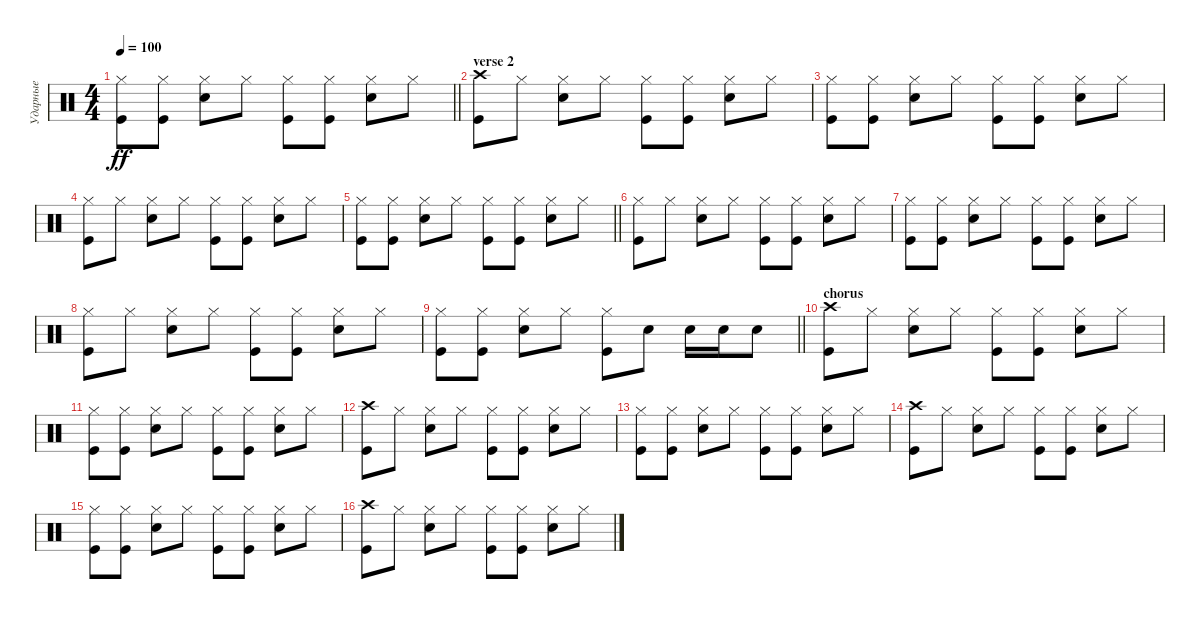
\track ("Ударные" "Ударные") {instrument percussion}
\staff {score}
\articulation defaults
\ts (4 4)
\tempo 100
\clef neutral
\barLineRight lightlight
\ks c
("Hi-Hat (closed)" "Kick (hit)").8{dy ff} ("Hi-Hat (closed)" "Kick (hit)").8 ("Hi-Hat (closed)" "Electric Snare (hit)").8 "Hi-Hat (closed)".8 ("Hi-Hat (closed)" "Kick (hit)").8 ("Hi-Hat (closed)" "Kick (hit)").8 ("Hi-Hat (closed)" "Electric Snare (hit)").8 "Hi-Hat (closed)".8 |
\section ("" "verse 2")
("Crash high (hit)" "Kick (hit)").8 "Hi-Hat (closed)".8 ("Hi-Hat (closed)" "Electric Snare (hit)").8 "Hi-Hat (closed)".8 ("Hi-Hat (closed)" "Kick (hit)").8 ("Hi-Hat (closed)" "Kick (hit)").8 ("Hi-Hat (closed)" "Electric Snare (hit)").8 "Hi-Hat (closed)".8 |
("Hi-Hat (closed)" "Kick (hit)").8 ("Hi-Hat (closed)" "Kick (hit)").8 ("Hi-Hat (closed)" "Electric Snare (hit)").8 "Hi-Hat (closed)".8 ("Hi-Hat (closed)" "Kick (hit)").8 ("Hi-Hat (closed)" "Kick (hit)").8 ("Hi-Hat (closed)" "Electric Snare (hit)").8 "Hi-Hat (closed)".8 |
("Hi-Hat (closed)" "Kick (hit)").8 "Hi-Hat (closed)".8 ("Hi-Hat (closed)" "Electric Snare (hit)").8 "Hi-Hat (closed)".8 ("Hi-Hat (closed)" "Kick (hit)").8 ("Hi-Hat (closed)" "Kick (hit)").8 ("Hi-Hat (closed)" "Electric Snare (hit)").8 "Hi-Hat (closed)".8 |
\barLineRight lightlight
("Hi-Hat (closed)" "Kick (hit)").8 ("Hi-Hat (closed)" "Kick (hit)").8 ("Hi-Hat (closed)" "Electric Snare (hit)").8 "Hi-Hat (closed)".8 ("Hi-Hat (closed)" "Kick (hit)").8 ("Hi-Hat (closed)" "Kick (hit)").8 ("Hi-Hat (closed)" "Electric Snare (hit)").8 "Hi-Hat (closed)".8 |
("Hi-Hat (closed)" "Kick (hit)").8 "Hi-Hat (closed)".8 ("Hi-Hat (closed)" "Electric Snare (hit)").8 "Hi-Hat (closed)".8 ("Hi-Hat (closed)" "Kick (hit)").8 ("Hi-Hat (closed)" "Kick (hit)").8 ("Hi-Hat (closed)" "Electric Snare (hit)").8 "Hi-Hat (closed)".8 |
("Hi-Hat (closed)" "Kick (hit)").8 ("Hi-Hat (closed)" "Kick (hit)").8 ("Hi-Hat (closed)" "Electric Snare (hit)").8 "Hi-Hat (closed)".8 ("Hi-Hat (closed)" "Kick (hit)").8 ("Hi-Hat (closed)" "Kick (hit)").8 ("Hi-Hat (closed)" "Electric Snare (hit)").8 "Hi-Hat (closed)".8 |
("Hi-Hat (closed)" "Kick (hit)").8 "Hi-Hat (closed)".8 ("Hi-Hat (closed)" "Electric Snare (hit)").8 "Hi-Hat (closed)".8 ("Hi-Hat (closed)" "Kick (hit)").8 ("Hi-Hat (closed)" "Kick (hit)").8 ("Hi-Hat (closed)" "Electric Snare (hit)").8 "Hi-Hat (closed)".8 |
\barLineRight lightlight
("Hi-Hat (closed)" "Kick (hit)").8 ("Hi-Hat (closed)" "Kick (hit)").8 ("Hi-Hat (closed)" "Electric Snare (hit)").8 "Hi-Hat (closed)".8 ("Hi-Hat (closed)" "Kick (hit)").8 "Electric Snare (hit)".8 "Electric Snare (hit)".16 "Electric Snare (hit)".16 "Electric Snare (hit)".8 |
\section ("" "chorus")
("Crash high (hit)" "Kick (hit)").8 "Hi-Hat (closed)".8 ("Hi-Hat (closed)" "Electric Snare (hit)").8 "Hi-Hat (closed)".8 ("Hi-Hat (closed)" "Kick (hit)").8 ("Hi-Hat (closed)" "Kick (hit)").8 ("Hi-Hat (closed)" "Electric Snare (hit)").8 "Hi-Hat (closed)".8 |
("Hi-Hat (closed)" "Kick (hit)").8 ("Hi-Hat (closed)" "Kick (hit)").8 ("Hi-Hat (closed)" "Electric Snare (hit)").8 "Hi-Hat (closed)".8 ("Hi-Hat (closed)" "Kick (hit)").8 ("Hi-Hat (closed)" "Kick (hit)").8 ("Hi-Hat (closed)" "Electric Snare (hit)").8 "Hi-Hat (closed)".8 |
("Crash high (hit)" "Kick (hit)").8 "Hi-Hat (closed)".8 ("Hi-Hat (closed)" "Electric Snare (hit)").8 "Hi-Hat (closed)".8 ("Hi-Hat (closed)" "Kick (hit)").8 ("Hi-Hat (closed)" "Kick (hit)").8 ("Hi-Hat (closed)" "Electric Snare (hit)").8 "Hi-Hat (closed)".8 |
("Hi-Hat (closed)" "Kick (hit)").8 ("Hi-Hat (closed)" "Kick (hit)").8 ("Hi-Hat (closed)" "Electric Snare (hit)").8 "Hi-Hat (closed)".8 ("Hi-Hat (closed)" "Kick (hit)").8 ("Hi-Hat (closed)" "Kick (hit)").8 ("Hi-Hat (closed)" "Electric Snare (hit)").8 "Hi-Hat (closed)".8 |
("Crash high (hit)" "Kick (hit)").8 "Hi-Hat (closed)".8 ("Hi-Hat (closed)" "Electric Snare (hit)").8 "Hi-Hat (closed)".8 ("Hi-Hat (closed)" "Kick (hit)").8 ("Hi-Hat (closed)" "Kick (hit)").8 ("Hi-Hat (closed)" "Electric Snare (hit)").8 "Hi-Hat (closed)".8 |
("Hi-Hat (closed)" "Kick (hit)").8 ("Hi-Hat (closed)" "Kick (hit)").8 ("Hi-Hat (closed)" "Electric Snare (hit)").8 "Hi-Hat (closed)".8 ("Hi-Hat (closed)" "Kick (hit)").8 ("Hi-Hat (closed)" "Kick (hit)").8 ("Hi-Hat (closed)" "Electric Snare (hit)").8 "Hi-Hat (closed)".8 |
("Crash high (hit)" "Kick (hit)").8 "Hi-Hat (closed)".8 ("Hi-Hat (closed)" "Electric Snare (hit)").8 "Hi-Hat (closed)".8 ("Hi-Hat (closed)" "Kick (hit)").8 ("Hi-Hat (closed)" "Kick (hit)").8 ("Hi-Hat (closed)" "Electric Snare (hit)").8 "Hi-Hat (closed)".8
